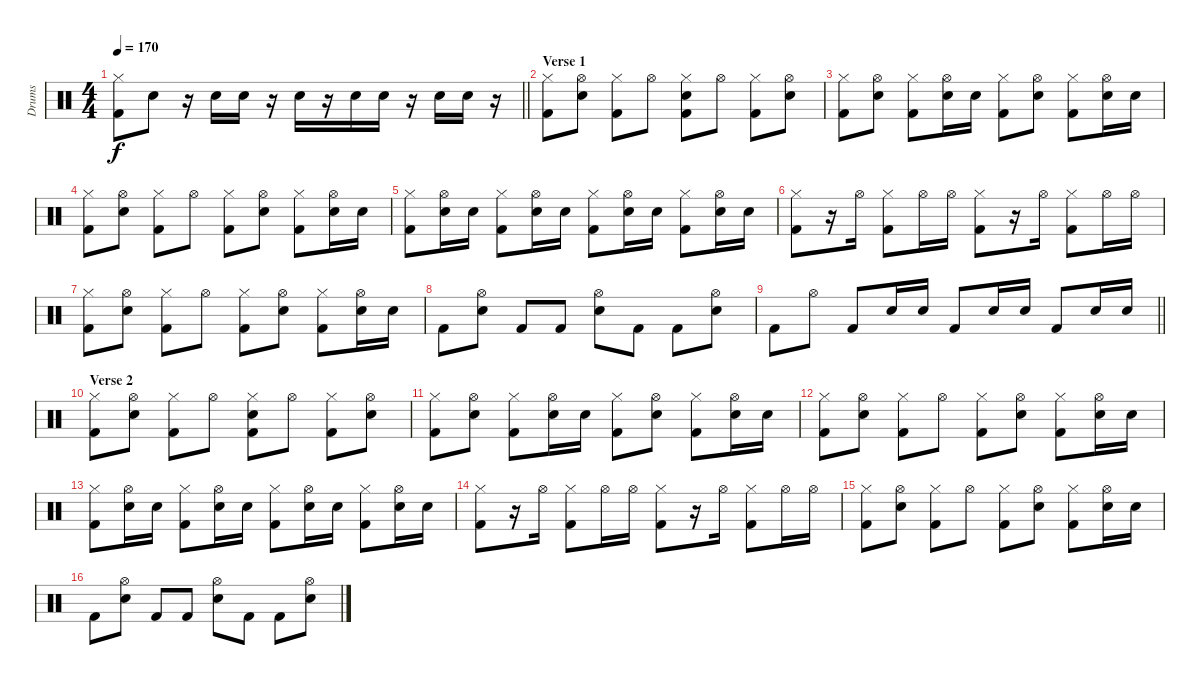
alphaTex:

\track ("Drums" "Drums") {instrument percussion}
\staff {score}
\articulation defaults
\ts (4 4)
\tempo 170
\clef neutral
\barLineRight lightlight
\ks c
("Kick (hit) 2" "Hi-Hat (closed)").8{dy f} "Electric Snare (hit)".8 r.16 "Electric Snare (hit)".16 "Electric Snare (hit)".16 r.16 "Electric Snare (hit)".16 r.16 "Electric Snare (hit)".16 "Electric Snare (hit)".16 r.16 "Electric Snare (hit)".16 "Electric Snare (hit)".16 r.16 |
\section ("" "Verse 1")
("Hi-Hat (closed)" "Kick (hit) 2").8 ("Electric Snare (hit)" "Hi-Hat (open)").8 ("Hi-Hat (closed)" "Kick (hit) 2").8 "Hi-Hat (open)".8 ("Electric Snare (hit)" "Hi-Hat (closed)" "Kick (hit) 2").8 "Hi-Hat (open)".8 ("Hi-Hat (closed)" "Kick (hit) 2").8 ("Electric Snare (hit)" "Hi-Hat (open)").8 |
("Hi-Hat (closed)" "Kick (hit) 2").8 ("Electric Snare (hit)" "Hi-Hat (open)").8 ("Hi-Hat (closed)" "Kick (hit) 2").8 ("Electric Snare (hit)" "Hi-Hat (open)").16 "Electric Snare (hit)".16 ("Hi-Hat (closed)" "Kick (hit) 2").8 ("Electric Snare (hit)" "Hi-Hat (open)").8 ("Hi-Hat (closed)" "Kick (hit) 2").8 ("Electric Snare (hit)" "Hi-Hat (open)").16 "Electric Snare (hit)".16 |
("Hi-Hat (closed)" "Kick (hit) 2").8 ("Electric Snare (hit)" "Hi-Hat (open)").8 ("Hi-Hat (closed)" "Kick (hit) 2").8 "Hi-Hat (open)".8 ("Hi-Hat (closed)" "Kick (hit) 2").8 ("Electric Snare (hit)" "Hi-Hat (open)").8 ("Hi-Hat (closed)" "Kick (hit) 2").8 ("Electric Snare (hit)" "Hi-Hat (open)").16 "Electric Snare (hit)".16 |
("Hi-Hat (closed)" "Kick (hit) 2").8 ("Electric Snare (hit)" "Hi-Hat (open)").16 "Electric Snare (hit)".16 ("Hi-Hat (closed)" "Kick (hit) 2").8 ("Electric Snare (hit)" "Hi-Hat (open)").16 "Electric Snare (hit)".16 ("Hi-Hat (closed)" "Kick (hit) 2").8 ("Electric Snare (hit)" "Hi-Hat (open)").16 "Electric Snare (hit)".16 ("Hi-Hat (closed)" "Kick (hit) 2").8 ("Electric Snare (hit)" "Hi-Hat (open)").16 "Electric Snare (hit)".16 |
("Hi-Hat (closed)" "Kick (hit) 2").8 r.16 "Hi-Hat (open)".16 ("Hi-Hat (closed)" "Kick (hit) 2").8 "Hi-Hat (open)".16 "Hi-Hat (open)".16 ("Hi-Hat (closed)" "Kick (hit) 2").8 r.16 "Hi-Hat (open)".16 ("Hi-Hat (closed)" "Kick (hit) 2").8 "Hi-Hat (open)".16 "Hi-Hat (open)".16 |
("Hi-Hat (closed)" "Kick (hit) 2").8 ("Electric Snare (hit)" "Hi-Hat (open)").8 ("Hi-Hat (closed)" "Kick (hit) 2").8 "Hi-Hat (open)".8 ("Hi-Hat (closed)" "Kick (hit) 2").8 ("Electric Snare (hit)" "Hi-Hat (open)").8 ("Hi-Hat (closed)" "Kick (hit) 2").8 ("Electric Snare (hit)" "Hi-Hat (open)").16 "Electric Snare (hit)".16 |
"Kick (hit) 2".8 ("Electric Snare (hit)" "Hi-Hat (open)").8 "Kick (hit) 2".8 "Kick (hit) 2".8 ("Electric Snare (hit)" "Hi-Hat (open)").8 "Kick (hit) 2".8 "Kick (hit) 2".8 ("Electric Snare (hit)" "Hi-Hat (open)").8 |
\barLineRight lightlight "Kick (hit) 2".8 "Hi-Hat (open)".8 "Kick (hit) 2".8 "Electric Snare (hit)".16 "Electric Snare (hit)".16 "Kick (hit) 2".8 "Electric Snare (hit)".16 "Electric Snare (hit)".16 "Kick (hit) 2".8 "Electric Snare (hit)".16 "Electric Snare (hit)".16
|
\section ("" "Verse 2")
("Hi-Hat (closed)" "Kick (hit) 2").8 ("Electric Snare (hit)" "Hi-Hat (open)").8 ("Hi-Hat (closed)" "Kick (hit) 2").8 "Hi-Hat (open)".8 ("Electric Snare (hit)" "Hi-Hat (closed)" "Kick (hit) 2").8 "Hi-Hat (open)".8 ("Hi-Hat (closed)" "Kick (hit) 2").8 ("Electric Snare (hit)" "Hi-Hat (open)").8 |
("Hi-Hat (closed)" "Kick (hit) 2").8 ("Electric Snare (hit)" "Hi-Hat (open)").8 ("Hi-Hat (closed)" "Kick (hit) 2").8 ("Electric Snare (hit)" "Hi-Hat (open)").16 "Electric Snare (hit)".16 ("Hi-Hat (closed)" "Kick (hit) 2").8 ("Electric Snare (hit)" "Hi-Hat (open)").8 ("Hi-Hat (closed)" "Kick (hit) 2").8 ("Electric Snare (hit)" "Hi-Hat (open)").16 "Electric Snare (hit)".16 |
("Hi-Hat (closed)" "Kick (hit) 2").8 ("Electric Snare (hit)" "Hi-Hat (open)").8 ("Hi-Hat (closed)" "Kick (hit) 2").8 "Hi-Hat (open)".8 ("Hi-Hat (closed)" "Kick (hit) 2").8 ("Electric Snare (hit)" "Hi-Hat (open)").8 ("Hi-Hat (closed)" "Kick (hit) 2").8 ("Electric Snare (hit)" "Hi-Hat (open)").16 "Electric Snare (hit)".16 |
("Hi-Hat (closed)" "Kick (hit) 2").8 ("Electric Snare (hit)" "Hi-Hat (open)").16 "Electric Snare (hit)".16 ("Hi-Hat (closed)" "Kick (hit) 2").8 ("Electric Snare (hit)" "Hi-Hat (open)").16 "Electric Snare (hit)".16 ("Hi-Hat (closed)" "Kick (hit) 2").8 ("Electric Snare (hit)" "Hi-Hat (open)").16 "Electric Snare (hit)".16 ("Hi-Hat (closed)" "Kick (hit) 2").8 ("Electric Snare (hit)" "Hi-Hat (open)").16 "Electric Snare (hit)".16 |
("Hi-Hat (closed)" "Kick (hit) 2").8 r.16 "Hi-Hat (open)".16 ("Hi-Hat (closed)" "Kick (hit) 2").8 "Hi-Hat (open)".16 "Hi-Hat (open)".16 ("Hi-Hat (closed)" "Kick (hit) 2").8 r.16 "Hi-Hat (open)".16 ("Hi-Hat (closed)" "Kick (hit) 2").8 "Hi-Hat (open)".16 "Hi-Hat (open)".16 |
("Hi-Hat (closed)" "Kick (hit) 2").8 ("Electric Snare (hit)" "Hi-Hat (open)").8 ("Hi-Hat (closed)" "Kick (hit) 2").8 "Hi-Hat (open)".8 ("Hi-Hat (closed)" "Kick (hit) 2").8 ("Electric Snare (hit)" "Hi-Hat (open)").8 ("Hi-Hat (closed)" "Kick (hit) 2").8 ("Electric Snare (hit)" "Hi-Hat (open)").16 "Electric Snare (hit)".16 |
"Kick (hit) 2".8 ("Electric Snare (hit)" "Hi-Hat (open)").8 "Kick (hit) 2".8 "Kick (hit) 2".8 ("Electric Snare (hit)" "Hi-Hat (open)").8 "Kick (hit) 2".8 "Kick (hit) 2".8 ("Electric Snare (hit)" "Hi-Hat (open)").8
